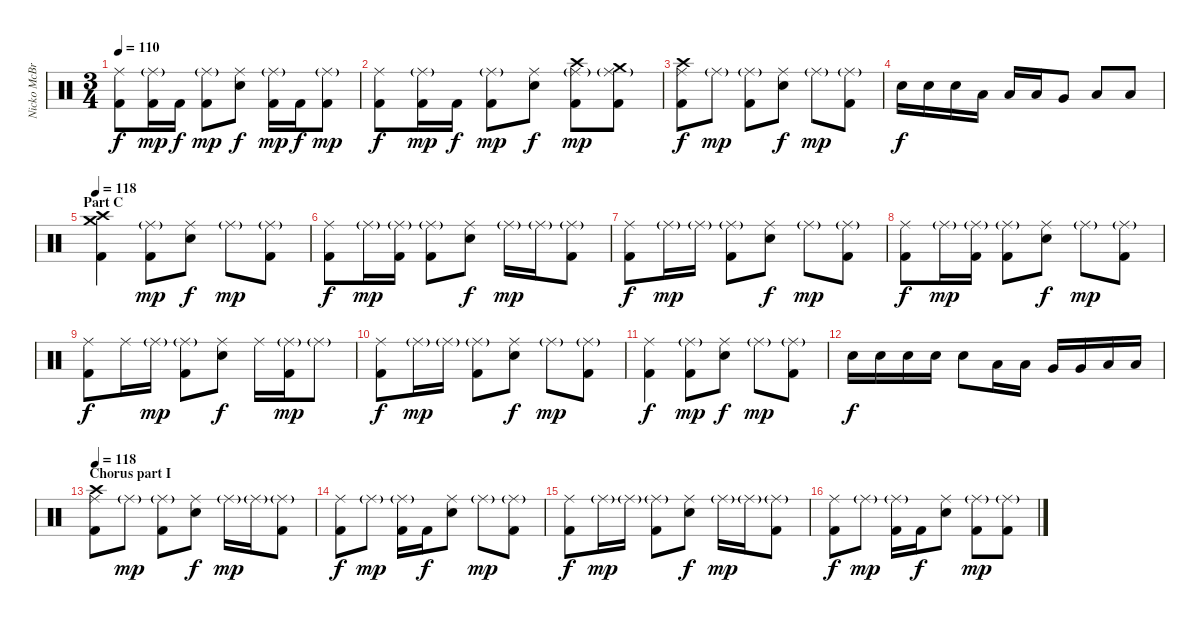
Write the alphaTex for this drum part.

\track ("Nicko McBrain" "Nicko McBr") {instrument percussion}
\staff {score}
\articulation defaults
\ts (3 4)
\tempo 110
\clef neutral
\ks c
("Ride (middle)" "Kick (hit) 2").8{dy f} ("Ride (middle)"{g} "Kick (hit) 2").16{dy mp} "Kick (hit) 2".16{dy f} ("Ride (middle)"{g} "Kick (hit) 2").8{dy mp} ("Ride (middle)" "Electric Snare (hit)").8{dy f} ("Ride (middle)"{g} "Kick (hit) 2").16{dy mp} "Kick (hit) 2".16{dy f} ("Ride (middle)"{g} "Kick (hit) 2").8{dy mp} |
("Ride (middle)" "Kick (hit) 2").8{dy f} ("Ride (middle)"{g} "Kick (hit) 2").16{dy mp} "Kick (hit) 2".16{dy f} ("Ride (middle)"{g} "Kick (hit) 2").8{dy mp} ("Ride (middle)" "Electric Snare (hit)").8{dy f} ("Ride (middle)"{g} "Crash high (hit)" "Kick (hit) 2").8{dy mp} ("Ride (middle)"{g} "Crash medium (hit)" "Kick (hit) 2").8 |
("Ride (middle)" "Crash high (hit)" "Kick (hit) 2").8{dy f} "Ride (middle)"{g}.8{dy mp} ("Ride (middle)"{g} "Kick (hit) 2").8 ("Ride (middle)" "Electric Snare (hit)").8{dy f} "Ride (middle)"{g}.8{dy mp} ("Ride (middle)"{g} "Kick (hit) 2").8 |
"Electric Snare (hit)".16{dy f} "Electric Snare (hit)".16 "Electric Snare (hit)".16 "Low Tom (hit)".16 "Low Tom (hit)".16 "Low Tom (hit)".16 "Very Low Tom (hit)".8 "Low Floor Tom (hit)".8 "Low Floor Tom (hit)".8 |
\section ("" "Part C")
\tempo 118
("Crash high (hit)" "Crash medium (hit)" "Kick (hit) 2").4 ("Ride (middle)"{g} "Kick (hit) 2").8{dy mp} ("Ride (middle)" "Electric Snare (hit)").8{dy f} "Ride (middle)"{g}.8{dy mp} ("Ride (middle)"{g} "Kick (hit) 2").8 |
("Ride (middle)" "Kick (hit) 2").8{dy f} "Ride (middle)"{g}.16{dy mp} ("Ride (middle)"{g} "Kick (hit) 2").16 ("Ride (middle)"{g} "Kick (hit) 2").8 ("Ride (middle)" "Electric Snare (hit)").8{dy f} "Ride (middle)"{g}.16{dy mp} "Ride (middle)"{g}.16 ("Ride (middle)"{g} "Kick (hit) 2").8 |
("Ride (middle)" "Kick (hit) 2").8{dy f} "Ride (middle)"{g}.16{dy mp} "Ride (middle)"{g}.16 ("Ride (middle)"{g} "Kick (hit) 2").8 ("Ride (middle)" "Electric Snare (hit)").8{dy f} "Ride (middle)"{g}.8{dy mp} ("Ride (middle)"{g} "Kick (hit) 2").8 |
("Ride (middle)" "Kick (hit) 2").8{dy f} "Ride (middle)"{g}.16{dy mp} ("Ride (middle)"{g} "Kick (hit) 2").16 ("Ride (middle)"{g} "Kick (hit) 2").8 ("Ride (middle)" "Electric Snare (hit)").8{dy f} "Ride (middle)"{g}.8{dy mp} ("Ride (middle)"{g} "Kick (hit) 2").8 |
("Ride (middle)" "Kick (hit) 2").8{dy f} "Ride (middle)".16 "Ride (middle)"{g}.16{dy mp} ("Ride (middle)"{g} "Kick (hit) 2").8 ("Ride (middle)" "Electric Snare (hit)").8{dy f} "Ride (middle)".16 ("Ride (middle)"{g} "Kick (hit) 2").16{dy mp} "Ride (middle)"{g}.8 |
("Ride (middle)" "Kick (hit) 2").8{dy f} "Ride (middle)"{g}.16{dy mp} "Ride (middle)"{g}.16 ("Ride (middle)"{g} "Kick (hit) 2").8 ("Ride (middle)" "Electric Snare (hit)").8{dy f} "Ride (middle)"{g}.8{dy mp} ("Ride (middle)"{g} "Kick (hit) 2").8 |
("Ride (middle)" "Kick (hit) 2").4{dy f} ("Ride (middle)"{g} "Kick (hit) 2").8{dy mp} ("Ride (middle)" "Electric Snare (hit)").8{dy f} "Ride (middle)"{g}.8{dy mp} ("Ride (middle)"{g} "Kick (hit) 2").8 |
"Electric Snare (hit)".16{dy f} "Electric Snare (hit)".16 "Electric Snare (hit)".16 "Electric Snare (hit)".16 "Electric Snare (hit)".8 "Low Tom (hit)".16 "Low Tom (hit)".16 "Very Low Tom (hit)".16 "Very Low Tom (hit)".16 "Low Floor Tom (hit)".16 "Low Floor Tom (hit)".16 |
\section ("" "Chorus part I")
\tempo 118
("Ride (middle)" "Crash high (hit)" "Kick (hit) 2").8 "Ride (middle)"{g}.8{dy mp} ("Ride (middle)"{g} "Kick (hit) 2").8 ("Ride (middle)" "Electric Snare (hit)").8{dy f} "Ride (middle)"{g}.16{dy mp} "Ride (middle)"{g}.16 ("Ride (middle)"{g} "Kick (hit) 2").8 |
("Ride (middle)" "Kick (hit) 2").8{dy f} "Ride (middle)"{g}.8{dy mp} ("Ride (middle)"{g} "Kick (hit) 2").16 "Kick (hit) 2".16{dy f} ("Ride (middle)" "Electric Snare (hit)").8 "Ride (middle)"{g}.8{dy mp} ("Ride (middle)"{g} "Kick (hit) 2").8 |
("Ride (middle)" "Kick (hit) 2").8{dy f} "Ride (middle)"{g}.16{dy mp} "Ride (middle)"{g}.16 ("Ride (middle)"{g} "Kick (hit) 2").8 ("Ride (middle)" "Electric Snare (hit)").8{dy f} "Ride (middle)"{g}.16{dy mp} "Ride (middle)"{g}.16 ("Ride (middle)"{g} "Kick (hit) 2").8 |
("Ride (middle)" "Kick (hit) 2").8{dy f} "Ride (middle)"{g}.8{dy mp} ("Ride (middle)"{g} "Kick (hit) 2").16 "Kick (hit) 2".16{dy f} ("Ride (middle)" "Electric Snare (hit)").8 ("Ride (middle)"{g} "Kick (hit) 2").8{dy mp} ("Ride (middle)"{g} "Kick (hit) 2").8
